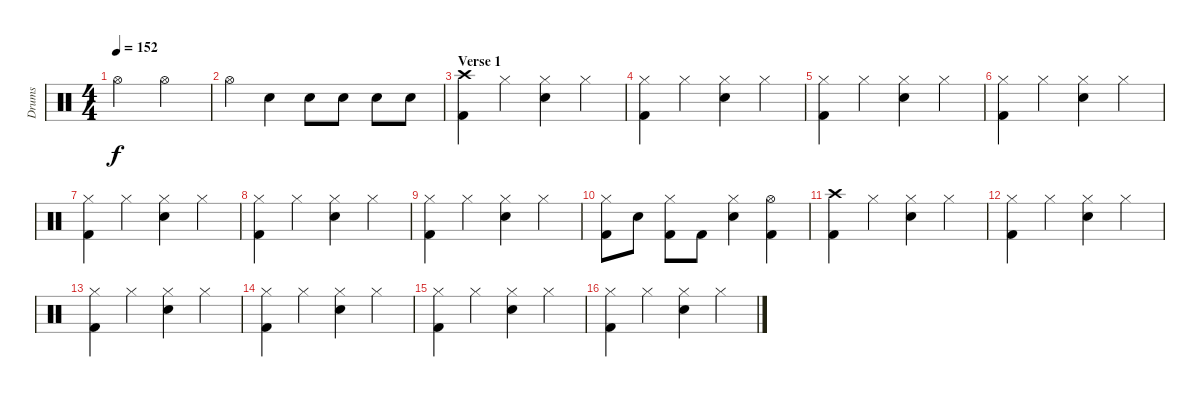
\track ("Drums" "Drums") {instrument percussion}
\staff {score}
\articulation defaults
\ts (4 4)
\tempo 152
\clef neutral
\ks c "Hi-Hat (open)".2{dy f} "Hi-Hat (open)".2
|
"Hi-Hat (open)".4 "Electric Snare (hit)".4 "Electric Snare (hit)".8 "Electric Snare (hit)".8 "Electric Snare (hit)".8 "Electric Snare (hit)".8 |
\section ("" "Verse 1")
("Crash high (hit)" "Kick (hit) 2").4 "Hi-Hat (closed)".4 ("Hi-Hat (closed)" "Electric Snare (hit)").4 "Hi-Hat (closed)".4 |
("Hi-Hat (closed)" "Kick (hit) 2").4 "Hi-Hat (closed)".4 ("Hi-Hat (closed)" "Electric Snare (hit)").4 "Hi-Hat (closed)".4 |
("Hi-Hat (closed)" "Kick (hit) 2").4 "Hi-Hat (closed)".4 ("Hi-Hat (closed)" "Electric Snare (hit)").4 "Hi-Hat (closed)".4 |
("Hi-Hat (closed)" "Kick (hit) 2").4 "Hi-Hat (closed)".4 ("Hi-Hat (closed)" "Electric Snare (hit)").4 "Hi-Hat (closed)".4 |
("Hi-Hat (closed)" "Kick (hit) 2").4 "Hi-Hat (closed)".4 ("Hi-Hat (closed)" "Electric Snare (hit)").4 "Hi-Hat (closed)".4 |
("Hi-Hat (closed)" "Kick (hit) 2").4 "Hi-Hat (closed)".4 ("Hi-Hat (closed)" "Electric Snare (hit)").4 "Hi-Hat (closed)".4 |
("Hi-Hat (closed)" "Kick (hit) 2").4 "Hi-Hat (closed)".4 ("Hi-Hat (closed)" "Electric Snare (hit)").4 "Hi-Hat (closed)".4 |
("Hi-Hat (closed)" "Kick (hit) 2").8 "Electric Snare (hit)".8 ("Hi-Hat (closed)" "Kick (hit) 2").8 "Kick (hit) 2".8 ("Hi-Hat (closed)" "Electric Snare (hit)").4 ("Hi-Hat (open)" "Kick (hit) 2").4 |
("Crash high (hit)" "Kick (hit) 2").4 "Hi-Hat (closed)".4 ("Hi-Hat (closed)" "Electric Snare (hit)").4 "Hi-Hat (closed)".4 |
("Hi-Hat (closed)" "Kick (hit) 2").4 "Hi-Hat (closed)".4 ("Hi-Hat (closed)" "Electric Snare (hit)").4 "Hi-Hat (closed)".4 |
("Hi-Hat (closed)" "Kick (hit) 2").4 "Hi-Hat (closed)".4 ("Hi-Hat (closed)" "Electric Snare (hit)").4 "Hi-Hat (closed)".4 |
("Hi-Hat (closed)" "Kick (hit) 2").4 "Hi-Hat (closed)".4 ("Hi-Hat (closed)" "Electric Snare (hit)").4 "Hi-Hat (closed)".4 |
("Hi-Hat (closed)" "Kick (hit) 2").4 "Hi-Hat (closed)".4 ("Hi-Hat (closed)" "Electric Snare (hit)").4 "Hi-Hat (closed)".4 |
("Hi-Hat (closed)" "Kick (hit) 2").4 "Hi-Hat (closed)".4 ("Hi-Hat (closed)" "Electric Snare (hit)").4 "Hi-Hat (closed)".4
